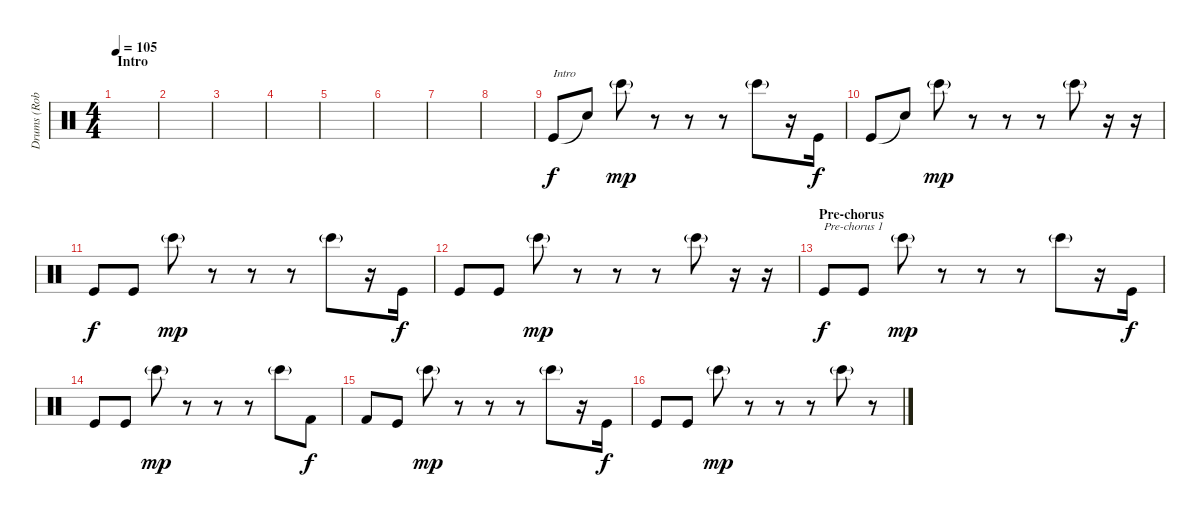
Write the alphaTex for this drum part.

\track ("Drums (Rob Bourdon)" "Drums (Rob") {instrument percussion}
\staff {score}
\articulation defaults
\ts (4 4)
\section ("" "Intro")
\tempo 105
\clef neutral
\ks c
|
|
|
|
|
|
|
|
"Kick (hit)".8{txt "Intro" volume 13} "Snare (hit)"{t}.8 "Bongo High (hit)"{g}.8{dy mp} r.8 r.8 r.8 "Bongo High (hit)"{g}.8 r.16 "Kick (hit)".16{dy f} |
"Kick (hit)".8 "Snare (hit)"{t}.8 "Bongo High (hit)"{g}.8{dy mp} r.8 r.8 r.8 "Bongo High (hit)"{g}.8 r.16 r.16 |
"Kick (hit)".8{dy f} "Kick (hit)".8 "Bongo High (hit)"{g}.8{dy mp} r.8 r.8 r.8 "Bongo High (hit)"{g}.8 r.16 "Kick (hit)".16{dy f} |
"Kick (hit)".8 "Kick (hit)".8 "Bongo High (hit)"{g}.8{dy mp} r.8 r.8 r.8 "Bongo High (hit)"{g}.8 r.16 r.16 |
\section ("" "Pre-chorus")
"Kick (hit)".8{txt "Pre-chorus 1" dy f} "Kick (hit)".8 "Bongo High (hit)"{g}.8{dy mp} r.8 r.8 r.8 "Bongo High (hit)"{g}.8 r.16 "Kick (hit)".16{dy f} |
"Kick (hit)".8 "Kick (hit)".8 "Bongo High (hit)"{g}.8{dy mp} r.8 r.8 r.8 "Bongo High (hit)"{g}.8 "Kick (hit) 2".8{dy f} |
"Kick (hit) 2".8 "Kick (hit)".8 "Bongo High (hit)"{g}.8{dy mp} r.8 r.8 r.8 "Bongo High (hit)"{g}.8 r.16 "Kick (hit)".16{dy f} |
"Kick (hit)".8 "Kick (hit)".8 "Bongo High (hit)"{g}.8{dy mp} r.8 r.8 r.8 "Bongo High (hit)"{g}.8 r.8
